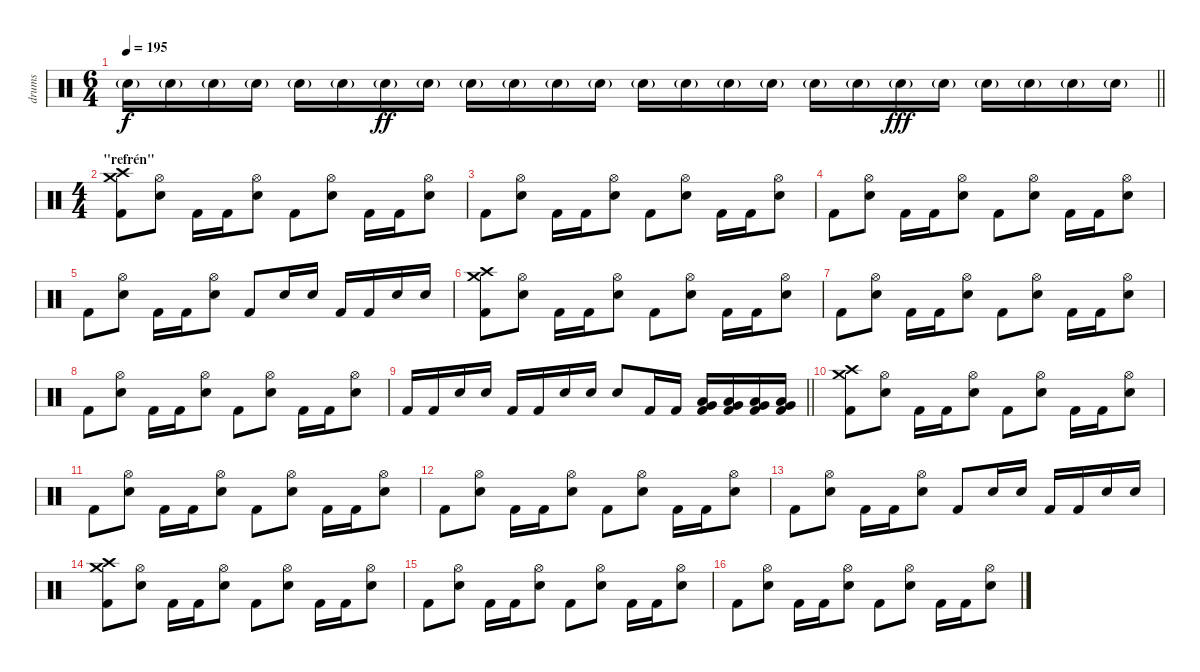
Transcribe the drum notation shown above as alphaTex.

\track ("drums" "drums") {instrument percussion}
\staff {score}
\articulation defaults
\ts (6 4)
\tempo 195
\clef neutral
\barLineRight lightlight
\ks c "Electric Snare (hit)"{g}.16{dy f} "Electric Snare (hit)"{g}.16 "Electric Snare (hit)"{g}.16 "Electric Snare (hit)"{g}.16 "Electric Snare (hit)"{g}.16 "Electric Snare (hit)"{g}.16 "Electric Snare (hit)"{g}.16{dy ff} "Electric Snare (hit)"{g}.16 "Electric Snare (hit)"{g}.16 "Electric Snare (hit)"{g}.16 "Electric Snare (hit)"{g}.16 "Electric Snare (hit)"{g}.16 "Electric Snare (hit)"{g}.16 "Electric Snare (hit)"{g}.16 "Electric Snare (hit)"{g}.16 "Electric Snare (hit)"{g}.16 "Electric Snare (hit)"{g}.16 "Electric Snare (hit)"{g}.16 "Electric Snare (hit)"{g}.16{dy fff} "Electric Snare (hit)"{g}.16 "Electric Snare (hit)"{g}.16 "Electric Snare (hit)"{g}.16 "Electric Snare (hit)"{g}.16 "Electric Snare (hit)"{g}.16
|
\ts (4 4)
\section ("" "\"refrén\"")
("Crash medium (hit)" "Crash high (hit)" "Kick (hit) 2").8 ("Hi-Hat (open)" "Electric Snare (hit)").8 "Kick (hit) 2".16 "Kick (hit) 2".16 ("Hi-Hat (open)" "Electric Snare (hit)").8 "Kick (hit) 2".8 ("Hi-Hat (open)" "Electric Snare (hit)").8 "Kick (hit) 2".16 "Kick (hit) 2".16 ("Hi-Hat (open)" "Electric Snare (hit)").8 |
"Kick (hit) 2".8 ("Hi-Hat (open)" "Electric Snare (hit)").8 "Kick (hit) 2".16 "Kick (hit) 2".16 ("Hi-Hat (open)" "Electric Snare (hit)").8 "Kick (hit) 2".8 ("Hi-Hat (open)" "Electric Snare (hit)").8 "Kick (hit) 2".16 "Kick (hit) 2".16 ("Hi-Hat (open)" "Electric Snare (hit)").8 |
"Kick (hit) 2".8 ("Hi-Hat (open)" "Electric Snare (hit)").8 "Kick (hit) 2".16 "Kick (hit) 2".16 ("Hi-Hat (open)" "Electric Snare (hit)").8 "Kick (hit) 2".8 ("Hi-Hat (open)" "Electric Snare (hit)").8 "Kick (hit) 2".16 "Kick (hit) 2".16 ("Hi-Hat (open)" "Electric Snare (hit)").8 |
"Kick (hit) 2".8 ("Hi-Hat (open)" "Electric Snare (hit)").8 "Kick (hit) 2".16 "Kick (hit) 2".16 ("Hi-Hat (open)" "Electric Snare (hit)").8 "Kick (hit) 2".8 "Electric Snare (hit)".16 "Electric Snare (hit)".16 "Kick (hit) 2".16 "Kick (hit) 2".16 "Electric Snare (hit)".16 "Electric Snare (hit)".16 |
("Crash medium (hit)" "Crash high (hit)" "Kick (hit) 2").8 ("Hi-Hat (open)" "Electric Snare (hit)").8 "Kick (hit) 2".16 "Kick (hit) 2".16 ("Hi-Hat (open)" "Electric Snare (hit)").8 "Kick (hit) 2".8 ("Hi-Hat (open)" "Electric Snare (hit)").8 "Kick (hit) 2".16 "Kick (hit) 2".16 ("Hi-Hat (open)" "Electric Snare (hit)").8 |
"Kick (hit) 2".8 ("Hi-Hat (open)" "Electric Snare (hit)").8 "Kick (hit) 2".16 "Kick (hit) 2".16 ("Hi-Hat (open)" "Electric Snare (hit)").8 "Kick (hit) 2".8 ("Hi-Hat (open)" "Electric Snare (hit)").8 "Kick (hit) 2".16 "Kick (hit) 2".16 ("Hi-Hat (open)" "Electric Snare (hit)").8 |
"Kick (hit) 2".8 ("Hi-Hat (open)" "Electric Snare (hit)").8 "Kick (hit) 2".16 "Kick (hit) 2".16 ("Hi-Hat (open)" "Electric Snare (hit)").8 "Kick (hit) 2".8 ("Hi-Hat (open)" "Electric Snare (hit)").8 "Kick (hit) 2".16 "Kick (hit) 2".16 ("Hi-Hat (open)" "Electric Snare (hit)").8 |
\barLineRight lightlight "Kick (hit) 2".16 "Kick (hit) 2".16 "Electric Snare (hit)".16 "Electric Snare (hit)".16 "Kick (hit) 2".16 "Kick (hit) 2".16 "Electric Snare (hit)".16 "Electric Snare (hit)".16 "Electric Snare (hit)".8 "Kick (hit) 2".16 "Kick (hit) 2".16
("Very Low Tom (hit)" "Low Floor Tom (hit)" "Kick (hit) 2").16 ("Low Floor Tom (hit)" "Very Low Tom (hit)" "Kick (hit) 2").16 ("Very Low Tom (hit)" "Low Floor Tom (hit)" "Kick (hit) 2").16 ("Low Floor Tom (hit)" "Very Low Tom (hit)" "Kick (hit) 2").16 |
("Crash medium (hit)" "Crash high (hit)" "Kick (hit) 2").8 ("Hi-Hat (open)" "Electric Snare (hit)").8 "Kick (hit) 2".16 "Kick (hit) 2".16 ("Hi-Hat (open)" "Electric Snare (hit)").8 "Kick (hit) 2".8 ("Hi-Hat (open)" "Electric Snare (hit)").8 "Kick (hit) 2".16 "Kick (hit) 2".16 ("Hi-Hat (open)" "Electric Snare (hit)").8 |
"Kick (hit) 2".8 ("Hi-Hat (open)" "Electric Snare (hit)").8 "Kick (hit) 2".16 "Kick (hit) 2".16 ("Hi-Hat (open)" "Electric Snare (hit)").8 "Kick (hit) 2".8 ("Hi-Hat (open)" "Electric Snare (hit)").8 "Kick (hit) 2".16 "Kick (hit) 2".16 ("Hi-Hat (open)" "Electric Snare (hit)").8 |
"Kick (hit) 2".8 ("Hi-Hat (open)" "Electric Snare (hit)").8 "Kick (hit) 2".16 "Kick (hit) 2".16 ("Hi-Hat (open)" "Electric Snare (hit)").8 "Kick (hit) 2".8 ("Hi-Hat (open)" "Electric Snare (hit)").8 "Kick (hit) 2".16 "Kick (hit) 2".16 ("Hi-Hat (open)" "Electric Snare (hit)").8 |
"Kick (hit) 2".8 ("Hi-Hat (open)" "Electric Snare (hit)").8 "Kick (hit) 2".16 "Kick (hit) 2".16 ("Hi-Hat (open)" "Electric Snare (hit)").8 "Kick (hit) 2".8 "Electric Snare (hit)".16 "Electric Snare (hit)".16 "Kick (hit) 2".16 "Kick (hit) 2".16 "Electric Snare (hit)".16 "Electric Snare (hit)".16 |
("Crash medium (hit)" "Crash high (hit)" "Kick (hit) 2").8 ("Hi-Hat (open)" "Electric Snare (hit)").8 "Kick (hit) 2".16 "Kick (hit) 2".16 ("Hi-Hat (open)" "Electric Snare (hit)").8 "Kick (hit) 2".8 ("Hi-Hat (open)" "Electric Snare (hit)").8 "Kick (hit) 2".16 "Kick (hit) 2".16 ("Hi-Hat (open)" "Electric Snare (hit)").8 |
"Kick (hit) 2".8 ("Hi-Hat (open)" "Electric Snare (hit)").8 "Kick (hit) 2".16 "Kick (hit) 2".16 ("Hi-Hat (open)" "Electric Snare (hit)").8 "Kick (hit) 2".8 ("Hi-Hat (open)" "Electric Snare (hit)").8 "Kick (hit) 2".16 "Kick (hit) 2".16 ("Hi-Hat (open)" "Electric Snare (hit)").8 |
"Kick (hit) 2".8 ("Hi-Hat (open)" "Electric Snare (hit)").8 "Kick (hit) 2".16 "Kick (hit) 2".16 ("Hi-Hat (open)" "Electric Snare (hit)").8 "Kick (hit) 2".8 ("Hi-Hat (open)" "Electric Snare (hit)").8 "Kick (hit) 2".16 "Kick (hit) 2".16 ("Hi-Hat (open)" "Electric Snare (hit)").8
